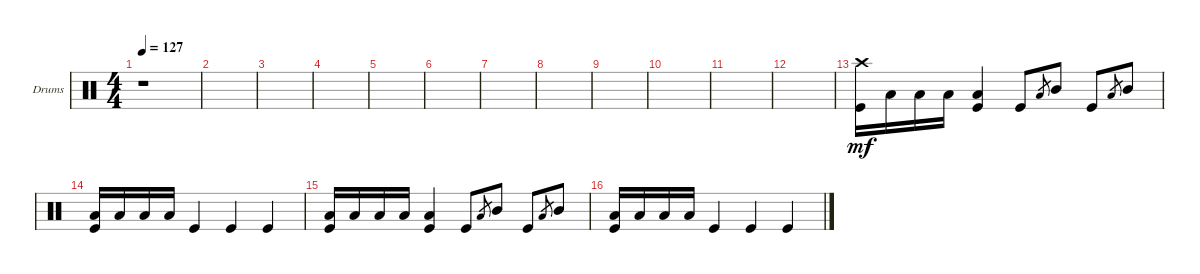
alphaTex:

\defaultSystemsLayout 4
\bracketExtendMode groupsimilarinstruments
\firstSystemTrackNameOrientation horizontal
\otherSystemsTrackNameOrientation horizontal
\track ("Drumkit" "Drums") {instrument percussion}
\staff {score}
\articulation defaults
\ts (4 4)
\tempo 127
\clef neutral
\scale
0.262911
\ks c
r.1{dy mf} |
\scale
0.262911 |
\scale
0.333333 |
\scale
0.333333 |
\scale
0.333333 |
\scale
0.333333 |
\scale
0.333333 |
\scale
0.333333 |
\scale
0.333333 |
\scale
0.333333 |
\scale
0.333333 |
\scale
0.333333 |
\scale
0.333333 ("Kick (hit)" "Crash high (hit)").16 "Low Tom (hit)".16 "Low Tom (hit)".16 "Low Tom (hit)".16 ("Low Tom (hit)" "Kick (hit)").4 "Kick (hit)".8 "Low Tom (hit)".8{gr} "Mid Tom (hit)".8 "Kick (hit)".8 "Low Tom (hit)".8{gr} "Mid Tom (hit)".8 |
\scale
0.333333 ("Kick (hit)" "Low Tom (hit)").16 "Low Tom (hit)".16 "Low Tom (hit)".16 "Low Tom (hit)".16 "Kick (hit)".4 "Kick (hit)".4 "Kick (hit)".4 |
\scale
0.333333 ("Kick (hit)" "Low Tom (hit)").16 "Low Tom (hit)".16 "Low Tom (hit)".16 "Low Tom (hit)".16 ("Low Tom (hit)" "Kick (hit)").4 "Kick (hit)".8 "Low Tom (hit)".8{gr} "Mid Tom (hit)".8 "Kick (hit)".8 "Low Tom (hit)".8{gr} "Mid Tom (hit)".8 |
\scale
0.333333 ("Kick (hit)" "Low Tom (hit)").16 "Low Tom (hit)".16 "Low Tom (hit)".16 "Low Tom (hit)".16 "Kick (hit)".4 "Kick (hit)".4 "Kick (hit)".4
